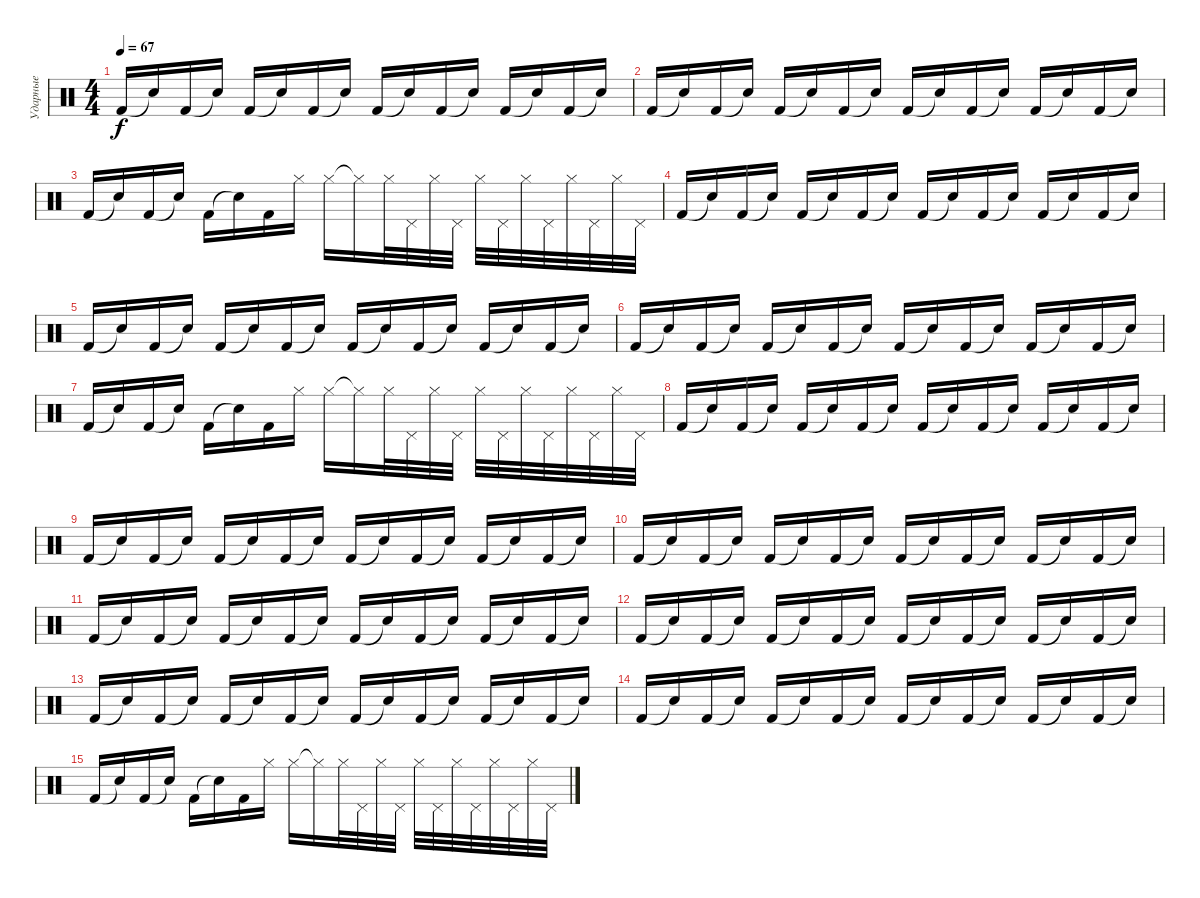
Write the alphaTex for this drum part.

\track ("Ударные" "Ударные") {instrument percussion}
\staff {score}
\articulation defaults
\ts (4 4)
\tempo 67
\clef neutral
\ks c "Kick (hit) 2".16{dy f} "Snare (hit)"{t}.16 "Kick (hit) 2".16 "Snare (hit)"{t}.16 "Kick (hit) 2".16 "Snare (hit)"{t}.16 "Kick (hit) 2".16 "Snare (hit)"{t}.16 "Kick (hit) 2".16 "Snare (hit)"{t}.16 "Kick (hit) 2".16 "Snare (hit)"{t}.16 "Kick (hit) 2".16 "Snare (hit)"{t}.16 "Kick (hit) 2".16 "Snare (hit)"{t}.16
|
"Kick (hit) 2".16 "Snare (hit)"{t}.16 "Kick (hit) 2".16 "Snare (hit)"{t}.16 "Kick (hit) 2".16 "Snare (hit)"{t}.16 "Kick (hit) 2".16 "Snare (hit)"{t}.16 "Kick (hit) 2".16 "Snare (hit)"{t}.16 "Kick (hit) 2".16 "Snare (hit)"{t}.16 "Kick (hit) 2".16 "Snare (hit)"{t}.16 "Kick (hit) 2".16 "Snare (hit)"{t}.16 |
"Kick (hit) 2".16 "Snare (hit)"{t}.16 "Kick (hit) 2".16 "Snare (hit)"{t}.16 "Kick (hit) 2".16 "Snare (hit)"{t}.16 "Kick (hit) 2".16 "Hi-Hat (closed)".16 "Hi-Hat (closed)".16 "Hi-Hat (closed)"{t}.16 "Hi-Hat (closed)".32 "Pedal Hi-Hat (hit)".32 "Hi-Hat (closed)".32 "Pedal Hi-Hat (hit)".32 "Hi-Hat (closed)".32 "Pedal Hi-Hat (hit)".32 "Hi-Hat (closed)".32 "Pedal Hi-Hat (hit)".32 "Hi-Hat (closed)".32 "Pedal Hi-Hat (hit)".32 "Hi-Hat (closed)".32 "Pedal Hi-Hat (hit)".32 |
"Kick (hit) 2".16 "Snare (hit)"{t}.16 "Kick (hit) 2".16 "Snare (hit)"{t}.16 "Kick (hit) 2".16 "Snare (hit)"{t}.16 "Kick (hit) 2".16 "Snare (hit)"{t}.16 "Kick (hit) 2".16 "Snare (hit)"{t}.16 "Kick (hit) 2".16 "Snare (hit)"{t}.16 "Kick (hit) 2".16 "Snare (hit)"{t}.16 "Kick (hit) 2".16 "Snare (hit)"{t}.16 |
"Kick (hit) 2".16 "Snare (hit)"{t}.16 "Kick (hit) 2".16 "Snare (hit)"{t}.16 "Kick (hit) 2".16 "Snare (hit)"{t}.16 "Kick (hit) 2".16 "Snare (hit)"{t}.16 "Kick (hit) 2".16 "Snare (hit)"{t}.16 "Kick (hit) 2".16 "Snare (hit)"{t}.16 "Kick (hit) 2".16 "Snare (hit)"{t}.16 "Kick (hit) 2".16 "Snare (hit)"{t}.16 |
"Kick (hit) 2".16 "Snare (hit)"{t}.16 "Kick (hit) 2".16 "Snare (hit)"{t}.16 "Kick (hit) 2".16 "Snare (hit)"{t}.16 "Kick (hit) 2".16 "Snare (hit)"{t}.16 "Kick (hit) 2".16 "Snare (hit)"{t}.16 "Kick (hit) 2".16 "Snare (hit)"{t}.16 "Kick (hit) 2".16 "Snare (hit)"{t}.16 "Kick (hit) 2".16 "Snare (hit)"{t}.16 |
"Kick (hit) 2".16 "Snare (hit)"{t}.16 "Kick (hit) 2".16 "Snare (hit)"{t}.16 "Kick (hit) 2".16 "Snare (hit)"{t}.16 "Kick (hit) 2".16 "Hi-Hat (closed)".16 "Hi-Hat (closed)".16 "Hi-Hat (closed)"{t}.16 "Hi-Hat (closed)".32 "Pedal Hi-Hat (hit)".32 "Hi-Hat (closed)".32 "Pedal Hi-Hat (hit)".32 "Hi-Hat (closed)".32 "Pedal Hi-Hat (hit)".32 "Hi-Hat (closed)".32 "Pedal Hi-Hat (hit)".32 "Hi-Hat (closed)".32 "Pedal Hi-Hat (hit)".32 "Hi-Hat (closed)".32 "Pedal Hi-Hat (hit)".32 |
"Kick (hit) 2".16 "Snare (hit)"{t}.16 "Kick (hit) 2".16 "Snare (hit)"{t}.16 "Kick (hit) 2".16 "Snare (hit)"{t}.16 "Kick (hit) 2".16 "Snare (hit)"{t}.16 "Kick (hit) 2".16 "Snare (hit)"{t}.16 "Kick (hit) 2".16 "Snare (hit)"{t}.16 "Kick (hit) 2".16 "Snare (hit)"{t}.16 "Kick (hit) 2".16 "Snare (hit)"{t}.16 |
"Kick (hit) 2".16 "Snare (hit)"{t}.16 "Kick (hit) 2".16 "Snare (hit)"{t}.16 "Kick (hit) 2".16 "Snare (hit)"{t}.16 "Kick (hit) 2".16 "Snare (hit)"{t}.16 "Kick (hit) 2".16 "Snare (hit)"{t}.16 "Kick (hit) 2".16 "Snare (hit)"{t}.16 "Kick (hit) 2".16 "Snare (hit)"{t}.16 "Kick (hit) 2".16 "Snare (hit)"{t}.16 |
"Kick (hit) 2".16 "Snare (hit)"{t}.16 "Kick (hit) 2".16 "Snare (hit)"{t}.16 "Kick (hit) 2".16 "Snare (hit)"{t}.16 "Kick (hit) 2".16 "Snare (hit)"{t}.16 "Kick (hit) 2".16 "Snare (hit)"{t}.16 "Kick (hit) 2".16 "Snare (hit)"{t}.16 "Kick (hit) 2".16 "Snare (hit)"{t}.16 "Kick (hit) 2".16 "Snare (hit)"{t}.16 |
"Kick (hit) 2".16 "Snare (hit)"{t}.16 "Kick (hit) 2".16 "Snare (hit)"{t}.16 "Kick (hit) 2".16 "Snare (hit)"{t}.16 "Kick (hit) 2".16 "Snare (hit)"{t}.16 "Kick (hit) 2".16 "Snare (hit)"{t}.16 "Kick (hit) 2".16 "Snare (hit)"{t}.16 "Kick (hit) 2".16 "Snare (hit)"{t}.16 "Kick (hit) 2".16 "Snare (hit)"{t}.16 |
"Kick (hit) 2".16 "Snare (hit)"{t}.16 "Kick (hit) 2".16 "Snare (hit)"{t}.16 "Kick (hit) 2".16 "Snare (hit)"{t}.16 "Kick (hit) 2".16 "Snare (hit)"{t}.16 "Kick (hit) 2".16 "Snare (hit)"{t}.16 "Kick (hit) 2".16 "Snare (hit)"{t}.16 "Kick (hit) 2".16 "Snare (hit)"{t}.16 "Kick (hit) 2".16 "Snare (hit)"{t}.16 |
"Kick (hit) 2".16 "Snare (hit)"{t}.16 "Kick (hit) 2".16 "Snare (hit)"{t}.16 "Kick (hit) 2".16 "Snare (hit)"{t}.16 "Kick (hit) 2".16 "Snare (hit)"{t}.16 "Kick (hit) 2".16 "Snare (hit)"{t}.16 "Kick (hit) 2".16 "Snare (hit)"{t}.16 "Kick (hit) 2".16 "Snare (hit)"{t}.16 "Kick (hit) 2".16 "Snare (hit)"{t}.16 |
"Kick (hit) 2".16 "Snare (hit)"{t}.16 "Kick (hit) 2".16 "Snare (hit)"{t}.16 "Kick (hit) 2".16 "Snare (hit)"{t}.16 "Kick (hit) 2".16 "Snare (hit)"{t}.16 "Kick (hit) 2".16 "Snare (hit)"{t}.16 "Kick (hit) 2".16 "Snare (hit)"{t}.16 "Kick (hit) 2".16 "Snare (hit)"{t}.16 "Kick (hit) 2".16 "Snare (hit)"{t}.16 |
"Kick (hit) 2".16 "Snare (hit)"{t}.16 "Kick (hit) 2".16 "Snare (hit)"{t}.16 "Kick (hit) 2".16 "Snare (hit)"{t}.16 "Kick (hit) 2".16 "Hi-Hat (closed)".16 "Hi-Hat (closed)".16 "Hi-Hat (closed)"{t}.16 "Hi-Hat (closed)".32 "Pedal Hi-Hat (hit)".32 "Hi-Hat (closed)".32 "Pedal Hi-Hat (hit)".32 "Hi-Hat (closed)".32 "Pedal Hi-Hat (hit)".32 "Hi-Hat (closed)".32 "Pedal Hi-Hat (hit)".32 "Hi-Hat (closed)".32 "Pedal Hi-Hat (hit)".32 "Hi-Hat (closed)".32 "Pedal Hi-Hat (hit)".32
